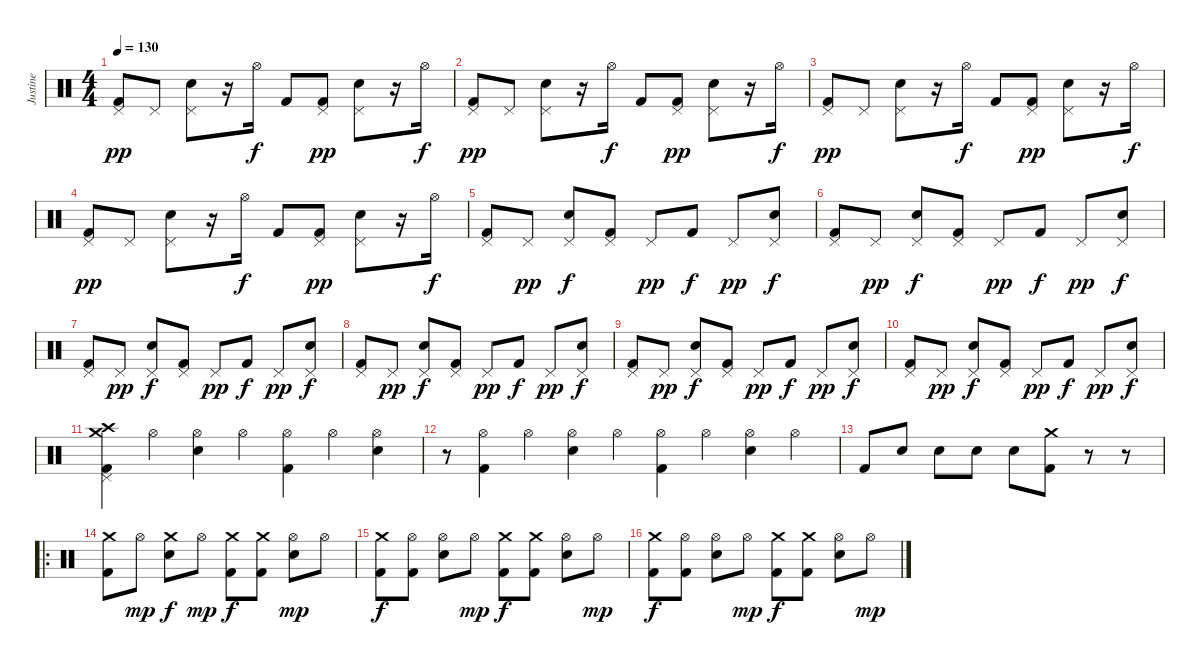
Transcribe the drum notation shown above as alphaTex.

\track ("Justine" "Justine") {instrument percussion}
\staff {score}
\articulation defaults
\ts (4 4)
\tempo 130
\clef neutral
\ks c
("Pedal Hi-Hat (hit)" "Kick (hit) 2").8{dy pp} "Pedal Hi-Hat (hit)".8 ("Pedal Hi-Hat (hit)" "Electric Snare (hit)").8 r.16 "Hi-Hat (open)".16{dy f} "Kick (hit) 2".8 ("Pedal Hi-Hat (hit)" "Kick (hit) 2").8{dy pp} ("Pedal Hi-Hat (hit)" "Electric Snare (hit)").8 r.16 "Hi-Hat (open)".16{dy f} |
("Pedal Hi-Hat (hit)" "Kick (hit) 2").8{dy pp} "Pedal Hi-Hat (hit)".8 ("Pedal Hi-Hat (hit)" "Electric Snare (hit)").8 r.16 "Hi-Hat (open)".16{dy f} "Kick (hit) 2".8 ("Pedal Hi-Hat (hit)" "Kick (hit) 2").8{dy pp} ("Pedal Hi-Hat (hit)" "Electric Snare (hit)").8 r.16 "Hi-Hat (open)".16{dy f} |
("Pedal Hi-Hat (hit)" "Kick (hit) 2").8{dy pp} "Pedal Hi-Hat (hit)".8 ("Pedal Hi-Hat (hit)" "Electric Snare (hit)").8 r.16 "Hi-Hat (open)".16{dy f} "Kick (hit) 2".8 ("Pedal Hi-Hat (hit)" "Kick (hit) 2").8{dy pp} ("Pedal Hi-Hat (hit)" "Electric Snare (hit)").8 r.16 "Hi-Hat (open)".16{dy f} |
("Pedal Hi-Hat (hit)" "Kick (hit) 2").8{dy pp} "Pedal Hi-Hat (hit)".8 ("Pedal Hi-Hat (hit)" "Electric Snare (hit)").8 r.16 "Hi-Hat (open)".16{dy f} "Kick (hit) 2".8 ("Pedal Hi-Hat (hit)" "Kick (hit) 2").8{dy pp} ("Pedal Hi-Hat (hit)" "Electric Snare (hit)").8 r.16 "Hi-Hat (open)".16{dy f} |
("Pedal Hi-Hat (hit)" "Kick (hit) 2").8 "Pedal Hi-Hat (hit)".8{dy pp} ("Pedal Hi-Hat (hit)" "Electric Snare (hit)").8{dy f} ("Pedal Hi-Hat (hit)" "Kick (hit) 2").8 "Pedal Hi-Hat (hit)".8{dy pp} "Kick (hit) 2".8{dy f} "Pedal Hi-Hat (hit)".8{dy pp} ("Pedal Hi-Hat (hit)" "Electric Snare (hit)").8{dy f} |
("Pedal Hi-Hat (hit)" "Kick (hit) 2").8 "Pedal Hi-Hat (hit)".8{dy pp} ("Pedal Hi-Hat (hit)" "Electric Snare (hit)").8{dy f} ("Pedal Hi-Hat (hit)" "Kick (hit) 2").8 "Pedal Hi-Hat (hit)".8{dy pp} "Kick (hit) 2".8{dy f} "Pedal Hi-Hat (hit)".8{dy pp} ("Pedal Hi-Hat (hit)" "Electric Snare (hit)").8{dy f} |
("Pedal Hi-Hat (hit)" "Kick (hit) 2").8 "Pedal Hi-Hat (hit)".8{dy pp} ("Pedal Hi-Hat (hit)" "Electric Snare (hit)").8{dy f} ("Pedal Hi-Hat (hit)" "Kick (hit) 2").8 "Pedal Hi-Hat (hit)".8{dy pp} "Kick (hit) 2".8{dy f} "Pedal Hi-Hat (hit)".8{dy pp} ("Pedal Hi-Hat (hit)" "Electric Snare (hit)").8{dy f} |
("Pedal Hi-Hat (hit)" "Kick (hit) 2").8 "Pedal Hi-Hat (hit)".8{dy pp} ("Pedal Hi-Hat (hit)" "Electric Snare (hit)").8{dy f} ("Pedal Hi-Hat (hit)" "Kick (hit) 2").8 "Pedal Hi-Hat (hit)".8{dy pp} "Kick (hit) 2".8{dy f} "Pedal Hi-Hat (hit)".8{dy pp} ("Pedal Hi-Hat (hit)" "Electric Snare (hit)").8{dy f} |
("Pedal Hi-Hat (hit)" "Kick (hit) 2").8 "Pedal Hi-Hat (hit)".8{dy pp} ("Pedal Hi-Hat (hit)" "Electric Snare (hit)").8{dy f} ("Pedal Hi-Hat (hit)" "Kick (hit) 2").8 "Pedal Hi-Hat (hit)".8{dy pp} "Kick (hit) 2".8{dy f} "Pedal Hi-Hat (hit)".8{dy pp} ("Pedal Hi-Hat (hit)" "Electric Snare (hit)").8{dy f} |
("Pedal Hi-Hat (hit)" "Kick (hit) 2").8 "Pedal Hi-Hat (hit)".8{dy pp} ("Pedal Hi-Hat (hit)" "Electric Snare (hit)").8{dy f} ("Pedal Hi-Hat (hit)" "Kick (hit) 2").8 "Pedal Hi-Hat (hit)".8{dy pp} "Kick (hit) 2".8{dy f} "Pedal Hi-Hat (hit)".8{dy pp} ("Pedal Hi-Hat (hit)" "Electric Snare (hit)").8{dy f} |
("Pedal Hi-Hat (hit)" "Kick (hit) 2" "Crash medium (hit)" "Crash high (hit)").4 "Hi-Hat (open)".4 ("Hi-Hat (open)" "Electric Snare (hit)").4 "Hi-Hat (open)".4 ("Hi-Hat (open)" "Kick (hit) 2").4 "Hi-Hat (open)".4 ("Hi-Hat (open)" "Electric Snare (hit)").4 |
r.8 ("Hi-Hat (open)" "Kick (hit) 2").4 "Hi-Hat (open)".4 ("Hi-Hat (open)" "Electric Snare (hit)").4 "Hi-Hat (open)".4 ("Hi-Hat (open)" "Kick (hit) 2").4 "Hi-Hat (open)".4 ("Hi-Hat (open)" "Electric Snare (hit)").4 "Hi-Hat (open)".4 |
"Kick (hit) 2".8 "Electric Snare (hit)".8 "Electric Snare (hit)".8 "Electric Snare (hit)".8 "Electric Snare (hit)".8 ("Crash medium (hit)" "Kick (hit) 2").8 r.8 r.8 |
\ro
("Crash medium (hit)" "Kick (hit) 2").8 "Hi-Hat (open)".8{dy mp} ("Crash medium (hit)" "Electric Snare (hit)").8{dy f} "Hi-Hat (open)".8{dy mp} ("Crash medium (hit)" "Kick (hit) 2").8{dy f} ("Crash medium (hit)" "Kick (hit) 2").8 ("Hi-Hat (open)" "Electric Snare (hit)").8{dy mp} "Hi-Hat (open)".8 |
("Crash medium (hit)" "Kick (hit) 2").8{dy f} ("Hi-Hat (open)" "Kick (hit) 2").8 ("Hi-Hat (open)" "Electric Snare (hit)").8 "Hi-Hat (open)".8{dy mp} ("Crash medium (hit)" "Kick (hit) 2").8{dy f} ("Crash medium (hit)" "Kick (hit) 2").8 ("Hi-Hat (open)" "Electric Snare (hit)").8 "Hi-Hat (open)".8{dy mp} |
("Crash medium (hit)" "Kick (hit) 2").8{dy f} ("Hi-Hat (open)" "Kick (hit) 2").8 ("Hi-Hat (open)" "Electric Snare (hit)").8 "Hi-Hat (open)".8{dy mp} ("Crash medium (hit)" "Kick (hit) 2").8{dy f} ("Crash medium (hit)" "Kick (hit) 2").8 ("Hi-Hat (open)" "Electric Snare (hit)").8 "Hi-Hat (open)".8{dy mp}
